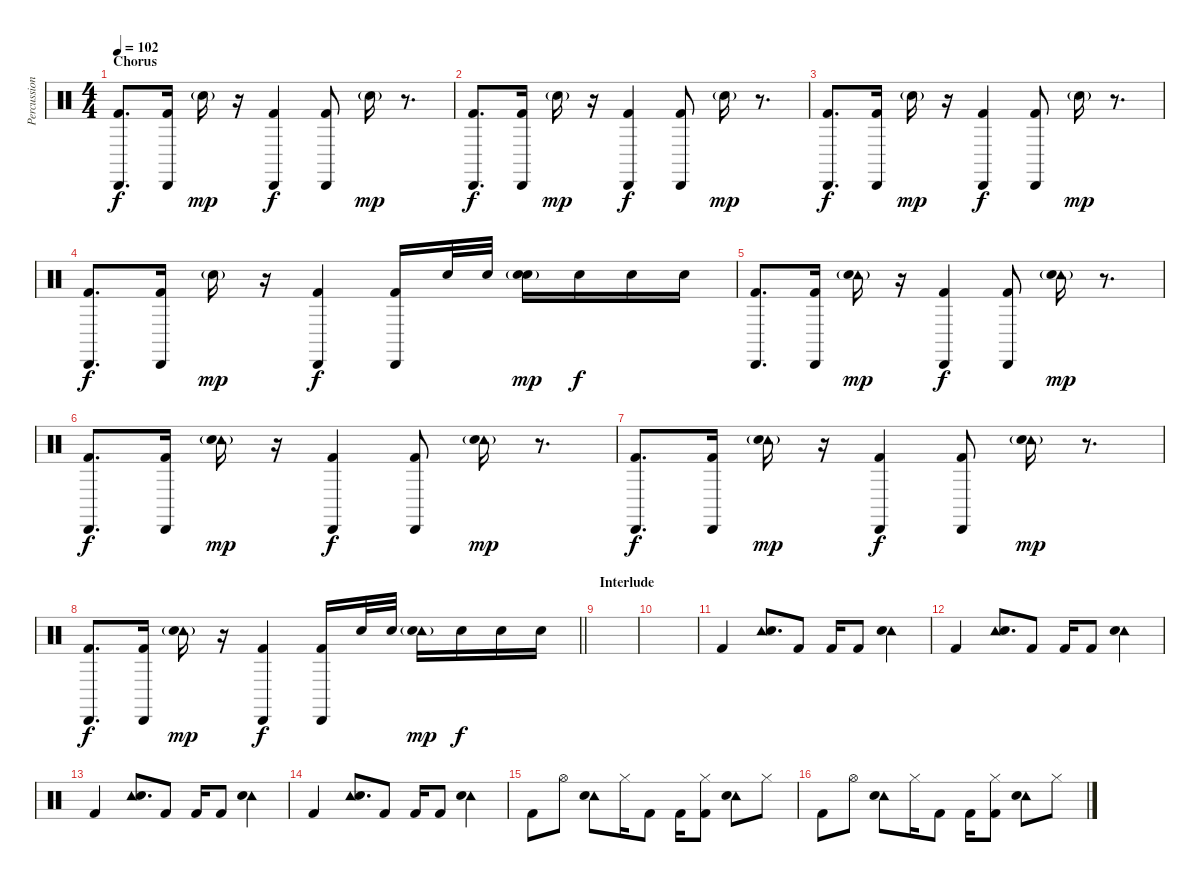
\track ("Percussion" "Percussion") {instrument percussion}
\staff {score}
\articulation defaults
\ts (4 4)
\section ("" "Chorus")
\tempo 102
\clef neutral
\ks c
("Cabasa (hit)" "Kick (hit) 2").8{d dy f} ("Cabasa (hit)" "Kick (hit) 2").16 "Hand Clap (hit)"{g}.16{dy mp} r.16 ("Cabasa (hit)" "Kick (hit) 2").4{dy f} ("Cabasa (hit)" "Kick (hit) 2").8 "Hand Clap (hit)"{g}.16{dy mp} r.8{d} |
("Cabasa (hit)" "Kick (hit) 2").8{d dy f} ("Cabasa (hit)" "Kick (hit) 2").16 "Hand Clap (hit)"{g}.16{dy mp} r.16 ("Cabasa (hit)" "Kick (hit) 2").4{dy f} ("Cabasa (hit)" "Kick (hit) 2").8 "Hand Clap (hit)"{g}.16{dy mp} r.8{d} |
("Cabasa (hit)" "Kick (hit) 2").8{d dy f} ("Cabasa (hit)" "Kick (hit) 2").16 "Hand Clap (hit)"{g}.16{dy mp} r.16 ("Cabasa (hit)" "Kick (hit) 2").4{dy f} ("Cabasa (hit)" "Kick (hit) 2").8 "Hand Clap (hit)"{g}.16{dy mp} r.8{d} |
("Cabasa (hit)" "Kick (hit) 2").8{d dy f} ("Cabasa (hit)" "Kick (hit) 2").16 "Hand Clap (hit)"{g}.16{dy mp} r.16 ("Cabasa (hit)" "Kick (hit) 2").4{dy f} ("Cabasa (hit)" "Kick (hit) 2").16 "Electric Snare (hit)".32 "Electric Snare (hit)".32 ("Hand Clap (hit)"{g} "Electric Snare (hit)").16{dy mp} "Electric Snare (hit)".16{dy f} "Electric Snare (hit)".16 "Electric Snare (hit)".16 |
("Cabasa (hit)" "Kick (hit) 2").8{d} ("Cabasa (hit)" "Kick (hit) 2").16 ("Tambourine (hit)"{g} "Electric Snare (hit)").16{dy mp} r.16 ("Cabasa (hit)" "Kick (hit) 2").4{dy f} ("Cabasa (hit)" "Kick (hit) 2").8 ("Tambourine (hit)"{g} "Electric Snare (hit)").16{dy mp} r.8{d} |
("Cabasa (hit)" "Kick (hit) 2").8{d dy f} ("Cabasa (hit)" "Kick (hit) 2").16 ("Tambourine (hit)"{g} "Electric Snare (hit)").16{dy mp} r.16 ("Cabasa (hit)" "Kick (hit) 2").4{dy f} ("Cabasa (hit)" "Kick (hit) 2").8 ("Tambourine (hit)"{g} "Electric Snare (hit)").16{dy mp} r.8{d} |
("Cabasa (hit)" "Kick (hit) 2").8{d dy f} ("Cabasa (hit)" "Kick (hit) 2").16 ("Tambourine (hit)"{g} "Electric Snare (hit)").16{dy mp} r.16 ("Cabasa (hit)" "Kick (hit) 2").4{dy f} ("Cabasa (hit)" "Kick (hit) 2").8 ("Tambourine (hit)"{g} "Electric Snare (hit)").16{dy mp} r.8{d} |
\barLineRight lightlight
("Cabasa (hit)" "Kick (hit) 2").8{d dy f} ("Cabasa (hit)" "Kick (hit) 2").16 ("Tambourine (hit)"{g} "Electric Snare (hit)").16{dy mp} r.16 ("Cabasa (hit)" "Kick (hit) 2").4{dy f} ("Cabasa (hit)" "Kick (hit) 2").16 "Electric Snare (hit)".32 "Electric Snare (hit)".32 ("Tambourine (hit)"{g} "Electric Snare (hit)").16{dy mp} "Electric Snare (hit)".16{dy f} "Electric Snare (hit)".16 "Electric Snare (hit)".16 |
\section ("" "Interlude")
|
|
"Kick (hit) 2".4 ("Tambourine (hit)" "Electric Snare (hit)").8{d} "Kick (hit) 2".8 "Kick (hit) 2".16 "Kick (hit) 2".8 ("Tambourine (hit)" "Electric Snare (hit)").4 |
"Kick (hit) 2".4 ("Tambourine (hit)" "Electric Snare (hit)").8{d} "Kick (hit) 2".8 "Kick (hit) 2".16 "Kick (hit) 2".8 ("Tambourine (hit)" "Electric Snare (hit)").4 |
"Kick (hit) 2".4 ("Tambourine (hit)" "Electric Snare (hit)").8{d} "Kick (hit) 2".8 "Kick (hit) 2".16 "Kick (hit) 2".8 ("Tambourine (hit)" "Electric Snare (hit)").4 |
"Kick (hit) 2".4 ("Tambourine (hit)" "Electric Snare (hit)").8{d} "Kick (hit) 2".8 "Kick (hit) 2".16 "Kick (hit) 2".8 ("Tambourine (hit)" "Electric Snare (hit)").4 |
"Kick (hit) 2".8 "Hi-Hat (open)".8 ("Tambourine (hit)" "Electric Snare (hit)").8 "Hi-Hat (closed)".16 "Kick (hit) 2".8 "Kick (hit) 2".16 ("Hi-Hat (closed)" "Kick (hit) 2").8 ("Tambourine (hit)" "Electric Snare (hit)").8 "Hi-Hat (closed)".8 |
"Kick (hit) 2".8 "Hi-Hat (open)".8 ("Tambourine (hit)" "Electric Snare (hit)").8 "Hi-Hat (closed)".16 "Kick (hit) 2".8 "Kick (hit) 2".16 ("Hi-Hat (closed)" "Kick (hit) 2").8 ("Tambourine (hit)" "Electric Snare (hit)").8 "Hi-Hat (closed)".8
